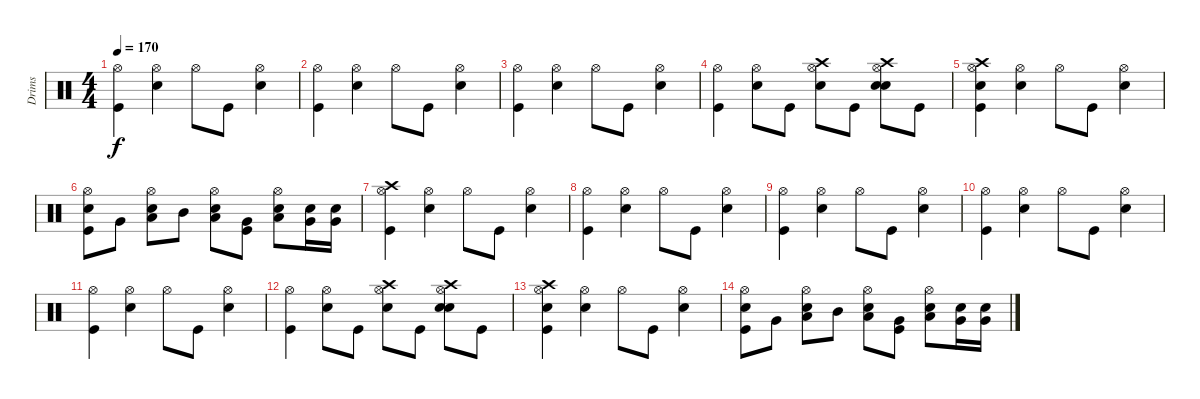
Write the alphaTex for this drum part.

\track ("Drims" "Drims") {instrument percussion}
\staff {score}
\articulation defaults
\ts (4 4)
\tempo 170
\clef neutral
\ks c
("Hi-Hat (open)" "Kick (hit)").4{dy f} ("Hi-Hat (open)" "Electric Snare (hit)").4 "Hi-Hat (open)".8 "Kick (hit)".8 ("Hi-Hat (open)" "Electric Snare (hit)").4 |
("Hi-Hat (open)" "Kick (hit)").4 ("Hi-Hat (open)" "Electric Snare (hit)").4 "Hi-Hat (open)".8 "Kick (hit)".8 ("Hi-Hat (open)" "Electric Snare (hit)").4 |
("Hi-Hat (open)" "Kick (hit)").4 ("Hi-Hat (open)" "Electric Snare (hit)").4 "Hi-Hat (open)".8 "Kick (hit)".8 ("Hi-Hat (open)" "Electric Snare (hit)").4 |
("Hi-Hat (open)" "Kick (hit)").4 ("Hi-Hat (open)" "Electric Snare (hit)").8 "Kick (hit)".8 ("Hi-Hat (open)" "Crash high (hit)" "Electric Snare (hit)").8 "Kick (hit)".8 ("Hi-Hat (open)" "Crash high (hit)" "Electric Snare (hit)" "Electric Snare (hit)").8 "Kick (hit)".8 |
("Hi-Hat (open)" "Crash high (hit)" "Electric Snare (hit)" "Kick (hit)").4 ("Hi-Hat (open)" "Electric Snare (hit)").4 "Hi-Hat (open)".8 "Kick (hit)".8 ("Hi-Hat (open)" "Electric Snare (hit)").4 |
("Hi-Hat (open)" "Electric Snare (hit)" "Kick (hit)").8 "Very Low Tom (hit)".8 ("Hi-Hat (open)" "Electric Snare (hit)" "Low Tom (hit)").8 "Mid Tom (hit)".8 ("Hi-Hat (open)" "Electric Snare (hit)" "Low Tom (hit)").8 ("Very Low Tom (hit)" "Kick (hit)").8 ("Hi-Hat (open)" "Electric Snare (hit)" "Low Floor Tom (hit)").8 ("Electric Snare (hit)" "Very Low Tom (hit)").16 ("Electric Snare (hit)" "Very Low Tom (hit)").16 |
("Hi-Hat (open)" "Crash high (hit)" "Kick (hit)").4 ("Hi-Hat (open)" "Electric Snare (hit)").4 "Hi-Hat (open)".8 "Kick (hit)".8 ("Hi-Hat (open)" "Electric Snare (hit)").4 |
("Hi-Hat (open)" "Kick (hit)").4 ("Hi-Hat (open)" "Electric Snare (hit)").4 "Hi-Hat (open)".8 "Kick (hit)".8 ("Hi-Hat (open)" "Electric Snare (hit)").4 |
("Hi-Hat (open)" "Kick (hit)").4 ("Hi-Hat (open)" "Electric Snare (hit)").4 "Hi-Hat (open)".8 "Kick (hit)".8 ("Hi-Hat (open)" "Electric Snare (hit)").4 |
("Hi-Hat (open)" "Kick (hit)").4 ("Hi-Hat (open)" "Electric Snare (hit)").4 "Hi-Hat (open)".8 "Kick (hit)".8 ("Hi-Hat (open)" "Electric Snare (hit)").4 |
("Hi-Hat (open)" "Kick (hit)").4 ("Hi-Hat (open)" "Electric Snare (hit)").4 "Hi-Hat (open)".8 "Kick (hit)".8 ("Hi-Hat (open)" "Electric Snare (hit)").4 |
("Hi-Hat (open)" "Kick (hit)").4 ("Hi-Hat (open)" "Electric Snare (hit)").8 "Kick (hit)".8 ("Hi-Hat (open)" "Crash high (hit)" "Electric Snare (hit)").8 "Kick (hit)".8 ("Hi-Hat (open)" "Crash high (hit)" "Electric Snare (hit)" "Electric Snare (hit)").8 "Kick (hit)".8 |
("Hi-Hat (open)" "Crash high (hit)" "Electric Snare (hit)" "Kick (hit)").4 ("Hi-Hat (open)" "Electric Snare (hit)").4 "Hi-Hat (open)".8 "Kick (hit)".8 ("Hi-Hat (open)" "Electric Snare (hit)").4 |
("Hi-Hat (open)" "Electric Snare (hit)" "Kick (hit)").8 "Very Low Tom (hit)".8 ("Hi-Hat (open)" "Electric Snare (hit)" "Low Tom (hit)").8 "Mid Tom (hit)".8 ("Hi-Hat (open)" "Electric Snare (hit)" "Low Tom (hit)").8 ("Very Low Tom (hit)" "Kick (hit)").8 ("Hi-Hat (open)" "Electric Snare (hit)" "Low Floor Tom (hit)").8 ("Electric Snare (hit)" "Very Low Tom (hit)").16 ("Electric Snare (hit)" "Very Low Tom (hit)").16
